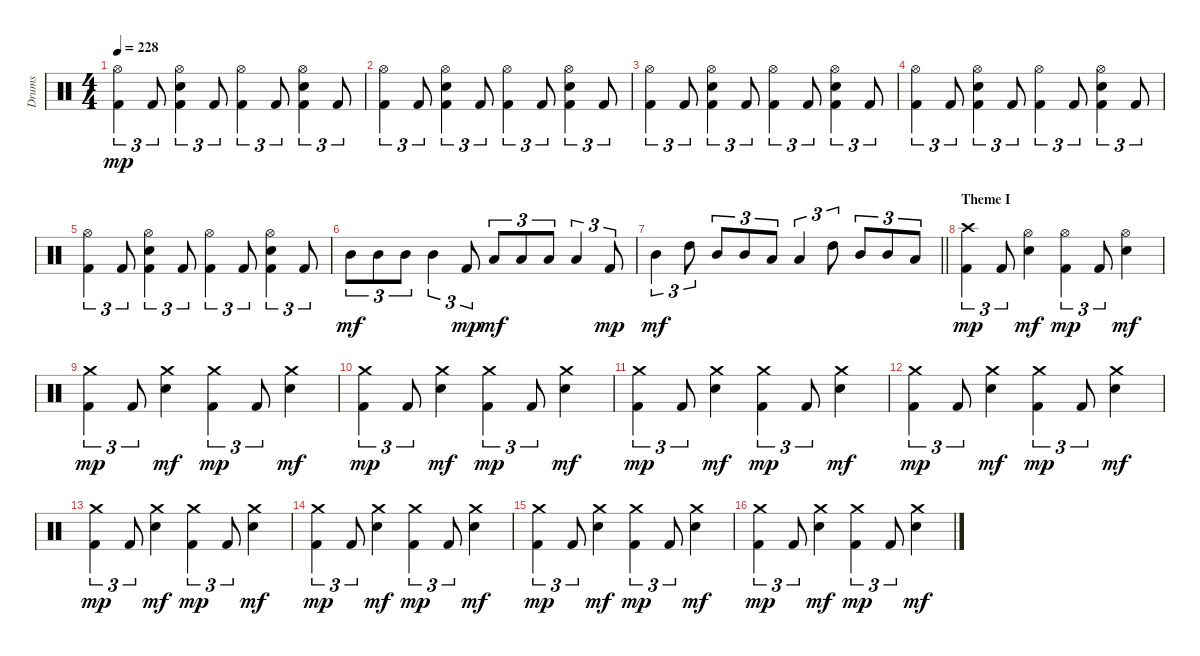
\track ("Drums" "Drums") {instrument percussion}
\staff {score}
\articulation defaults
\ts (4 4)
\tempo 228
\clef neutral
\ks c
("Hi-Hat (open)" "Kick (hit) 2").4{tu (3 2) dy mp} "Kick (hit) 2".8{tu (3 2)} ("Hi-Hat (open)" "Electric Snare (hit)" "Kick (hit) 2").4{tu (3 2)} "Kick (hit) 2".8{tu (3 2)} ("Hi-Hat (open)" "Kick (hit) 2").4{tu (3 2)} "Kick (hit) 2".8{tu (3 2)} ("Hi-Hat (open)" "Electric Snare (hit)" "Kick (hit) 2").4{tu (3 2)} "Kick (hit) 2".8{tu (3 2)} |
("Hi-Hat (open)" "Kick (hit) 2").4{tu (3 2)} "Kick (hit) 2".8{tu (3 2)} ("Hi-Hat (open)" "Electric Snare (hit)" "Kick (hit) 2").4{tu (3 2)} "Kick (hit) 2".8{tu (3 2)} ("Hi-Hat (open)" "Kick (hit) 2").4{tu (3 2)} "Kick (hit) 2".8{tu (3 2)} ("Hi-Hat (open)" "Electric Snare (hit)" "Kick (hit) 2").4{tu (3 2)} "Kick (hit) 2".8{tu (3 2)} |
("Hi-Hat (open)" "Kick (hit) 2").4{tu (3 2)} "Kick (hit) 2".8{tu (3 2)} ("Hi-Hat (open)" "Electric Snare (hit)" "Kick (hit) 2").4{tu (3 2)} "Kick (hit) 2".8{tu (3 2)} ("Hi-Hat (open)" "Kick (hit) 2").4{tu (3 2)} "Kick (hit) 2".8{tu (3 2)} ("Hi-Hat (open)" "Electric Snare (hit)" "Kick (hit) 2").4{tu (3 2)} "Kick (hit) 2".8{tu (3 2)} |
("Hi-Hat (open)" "Kick (hit) 2").4{tu (3 2)} "Kick (hit) 2".8{tu (3 2)} ("Hi-Hat (open)" "Electric Snare (hit)" "Kick (hit) 2").4{tu (3 2)} "Kick (hit) 2".8{tu (3 2)} ("Hi-Hat (open)" "Kick (hit) 2").4{tu (3 2)} "Kick (hit) 2".8{tu (3 2)} ("Hi-Hat (open)" "Electric Snare (hit)" "Kick (hit) 2").4{tu (3 2)} "Kick (hit) 2".8{tu (3 2)} |
("Hi-Hat (open)" "Kick (hit) 2").4{tu (3 2)} "Kick (hit) 2".8{tu (3 2)} ("Hi-Hat (open)" "Electric Snare (hit)" "Kick (hit) 2").4{tu (3 2)} "Kick (hit) 2".8{tu (3 2)} ("Hi-Hat (open)" "Kick (hit) 2").4{tu (3 2)} "Kick (hit) 2".8{tu (3 2)} ("Hi-Hat (open)" "Electric Snare (hit)" "Kick (hit) 2").4{tu (3 2)} "Kick (hit) 2".8{tu (3 2)} |
"Mid Tom (hit)".8{tu (3 2) dy mf} "Mid Tom (hit)".8{tu (3 2)} "Mid Tom (hit)".8{tu (3 2)} "Mid Tom (hit)".4{tu (3 2)} "Kick (hit) 2".8{tu (3 2) dy mp} "Low Tom (hit)".8{tu (3 2) dy mf} "Low Tom (hit)".8{tu (3 2)} "Low Tom (hit)".8{tu (3 2)} "Low Tom (hit)".4{tu (3 2)} "Kick (hit) 2".8{tu (3 2) dy mp} |
\barLineRight lightlight "Mid Tom (hit)".4{tu (3 2) dy mf} "High Tom (hit)".8{tu (3 2)} "Mid Tom (hit)".8{tu (3 2)} "Mid Tom (hit)".8{tu (3 2)} "Low Tom (hit)".8{tu (3 2)} "Low Tom (hit)".4{tu (3 2)} "High Tom (hit)".8{tu (3 2)} "Mid Tom (hit)".8{tu (3 2)} "Mid Tom (hit)".8{tu (3 2)} "Low Tom (hit)".8{tu (3 2)}
|
\section ("" "Theme I")
("Crash high (hit)" "Kick (hit) 2").4{tu (3 2) dy mp} "Kick (hit) 2".8{tu (3 2)} ("Hi-Hat (open)" "Electric Snare (hit)").4{dy mf} ("Hi-Hat (open)" "Kick (hit) 2").4{tu (3 2) dy mp} "Kick (hit) 2".8{tu (3 2)} ("Hi-Hat (open)" "Electric Snare (hit)").4{dy mf} |
("Crash medium (hit)" "Kick (hit) 2").4{tu (3 2) dy mp} "Kick (hit) 2".8{tu (3 2)} ("Crash medium (hit)" "Electric Snare (hit)").4{dy mf} ("Crash medium (hit)" "Kick (hit) 2").4{tu (3 2) dy mp} "Kick (hit) 2".8{tu (3 2)} ("Crash medium (hit)" "Electric Snare (hit)").4{dy mf} |
("Crash medium (hit)" "Kick (hit) 2").4{tu (3 2) dy mp} "Kick (hit) 2".8{tu (3 2)} ("Crash medium (hit)" "Electric Snare (hit)").4{dy mf} ("Crash medium (hit)" "Kick (hit) 2").4{tu (3 2) dy mp} "Kick (hit) 2".8{tu (3 2)} ("Crash medium (hit)" "Electric Snare (hit)").4{dy mf} |
("Crash medium (hit)" "Kick (hit) 2").4{tu (3 2) dy mp} "Kick (hit) 2".8{tu (3 2)} ("Crash medium (hit)" "Electric Snare (hit)").4{dy mf} ("Crash medium (hit)" "Kick (hit) 2").4{tu (3 2) dy mp} "Kick (hit) 2".8{tu (3 2)} ("Crash medium (hit)" "Electric Snare (hit)").4{dy mf} |
("Crash medium (hit)" "Kick (hit) 2").4{tu (3 2) dy mp} "Kick (hit) 2".8{tu (3 2)} ("Crash medium (hit)" "Electric Snare (hit)").4{dy mf} ("Crash medium (hit)" "Kick (hit) 2").4{tu (3 2) dy mp} "Kick (hit) 2".8{tu (3 2)} ("Crash medium (hit)" "Electric Snare (hit)").4{dy mf} |
("Crash medium (hit)" "Kick (hit) 2").4{tu (3 2) dy mp} "Kick (hit) 2".8{tu (3 2)} ("Crash medium (hit)" "Electric Snare (hit)").4{dy mf} ("Crash medium (hit)" "Kick (hit) 2").4{tu (3 2) dy mp} "Kick (hit) 2".8{tu (3 2)} ("Crash medium (hit)" "Electric Snare (hit)").4{dy mf} |
("Crash medium (hit)" "Kick (hit) 2").4{tu (3 2) dy mp} "Kick (hit) 2".8{tu (3 2)} ("Crash medium (hit)" "Electric Snare (hit)").4{dy mf} ("Crash medium (hit)" "Kick (hit) 2").4{tu (3 2) dy mp} "Kick (hit) 2".8{tu (3 2)} ("Crash medium (hit)" "Electric Snare (hit)").4{dy mf} |
("Crash medium (hit)" "Kick (hit) 2").4{tu (3 2) dy mp} "Kick (hit) 2".8{tu (3 2)} ("Crash medium (hit)" "Electric Snare (hit)").4{dy mf} ("Crash medium (hit)" "Kick (hit) 2").4{tu (3 2) dy mp} "Kick (hit) 2".8{tu (3 2)} ("Crash medium (hit)" "Electric Snare (hit)").4{dy mf} |
("Crash medium (hit)" "Kick (hit) 2").4{tu (3 2) dy mp} "Kick (hit) 2".8{tu (3 2)} ("Crash medium (hit)" "Electric Snare (hit)").4{dy mf} ("Crash medium (hit)" "Kick (hit) 2").4{tu (3 2) dy mp} "Kick (hit) 2".8{tu (3 2)} ("Crash medium (hit)" "Electric Snare (hit)").4{dy mf}
